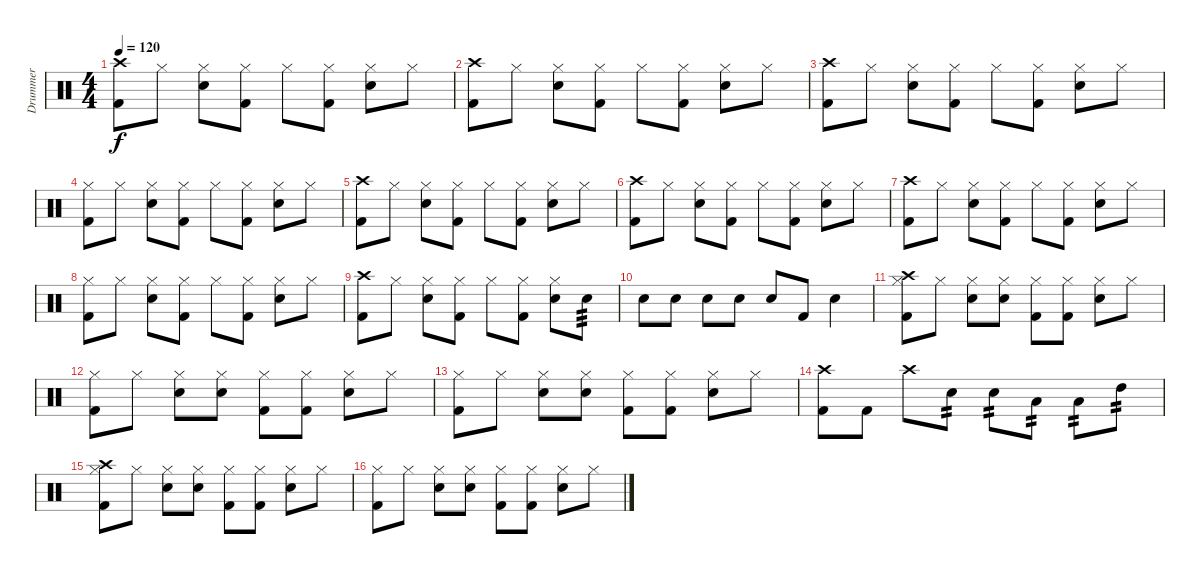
\track ("Drummer" "Drummer") {instrument percussion}
\staff {score}
\articulation defaults
\ts (4 4)
\tempo 120
\clef neutral
\ks c
("Kick (hit) 2" "Crash high (hit)").8{dy f} "Hi-Hat (closed)".8 ("Electric Snare (hit)" "Hi-Hat (closed)").8 ("Kick (hit) 2" "Hi-Hat (closed)").8 "Hi-Hat (closed)".8 ("Kick (hit) 2" "Hi-Hat (closed)").8 ("Electric Snare (hit)" "Hi-Hat (closed)").8 "Hi-Hat (closed)".8 |
("Kick (hit) 2" "Crash high (hit)").8 "Hi-Hat (closed)".8 ("Electric Snare (hit)" "Hi-Hat (closed)").8 ("Kick (hit) 2" "Hi-Hat (closed)").8 "Hi-Hat (closed)".8 ("Kick (hit) 2" "Hi-Hat (closed)").8 ("Electric Snare (hit)" "Hi-Hat (closed)").8 "Hi-Hat (closed)".8 |
("Kick (hit) 2" "Crash high (hit)").8 "Hi-Hat (closed)".8 ("Electric Snare (hit)" "Hi-Hat (closed)").8 ("Kick (hit) 2" "Hi-Hat (closed)").8 "Hi-Hat (closed)".8 ("Kick (hit) 2" "Hi-Hat (closed)").8 ("Electric Snare (hit)" "Hi-Hat (closed)").8 "Hi-Hat (closed)".8 |
("Kick (hit) 2" "Hi-Hat (closed)").8 "Hi-Hat (closed)".8 ("Electric Snare (hit)" "Hi-Hat (closed)").8 ("Kick (hit) 2" "Hi-Hat (closed)").8 "Hi-Hat (closed)".8 ("Kick (hit) 2" "Hi-Hat (closed)").8 ("Electric Snare (hit)" "Hi-Hat (closed)").8 "Hi-Hat (closed)".8 |
("Kick (hit) 2" "Crash high (hit)").8 "Hi-Hat (closed)".8 ("Electric Snare (hit)" "Hi-Hat (closed)").8 ("Kick (hit) 2" "Hi-Hat (closed)").8 "Hi-Hat (closed)".8 ("Kick (hit) 2" "Hi-Hat (closed)").8 ("Electric Snare (hit)" "Hi-Hat (closed)").8 "Hi-Hat (closed)".8 |
("Kick (hit) 2" "Crash high (hit)").8 "Hi-Hat (closed)".8 ("Electric Snare (hit)" "Hi-Hat (closed)").8 ("Kick (hit) 2" "Hi-Hat (closed)").8 "Hi-Hat (closed)".8 ("Kick (hit) 2" "Hi-Hat (closed)").8 ("Electric Snare (hit)" "Hi-Hat (closed)").8 "Hi-Hat (closed)".8 |
("Kick (hit) 2" "Crash high (hit)").8 "Hi-Hat (closed)".8 ("Electric Snare (hit)" "Hi-Hat (closed)").8 ("Kick (hit) 2" "Hi-Hat (closed)").8 "Hi-Hat (closed)".8 ("Kick (hit) 2" "Hi-Hat (closed)").8 ("Electric Snare (hit)" "Hi-Hat (closed)").8 "Hi-Hat (closed)".8 |
("Kick (hit) 2" "Hi-Hat (closed)").8 "Hi-Hat (closed)".8 ("Electric Snare (hit)" "Hi-Hat (closed)").8 ("Kick (hit) 2" "Hi-Hat (closed)").8 "Hi-Hat (closed)".8 ("Kick (hit) 2" "Hi-Hat (closed)").8 ("Electric Snare (hit)" "Hi-Hat (closed)").8 "Hi-Hat (closed)".8 |
("Kick (hit) 2" "Crash high (hit)").8 "Hi-Hat (closed)".8 ("Electric Snare (hit)" "Hi-Hat (closed)").8 ("Kick (hit) 2" "Hi-Hat (closed)").8 "Hi-Hat (closed)".8 ("Kick (hit) 2" "Hi-Hat (closed)").8 ("Electric Snare (hit)" "Hi-Hat (closed)").8 "Electric Snare (hit)".8{tp 3} |
"Electric Snare (hit)".8 "Electric Snare (hit)".8 "Electric Snare (hit)".8 "Electric Snare (hit)".8 "Electric Snare (hit)".8 "Kick (hit) 2".8 "Electric Snare (hit)".4 |
("Kick (hit) 2" "Crash high (hit)" "Hi-Hat (closed)").8 "Hi-Hat (closed)".8 ("Electric Snare (hit)" "Hi-Hat (closed)").8 ("Electric Snare (hit)" "Hi-Hat (closed)").8 ("Kick (hit) 2" "Hi-Hat (closed)").8 ("Kick (hit) 2" "Hi-Hat (closed)").8 ("Electric Snare (hit)" "Hi-Hat (closed)").8 "Hi-Hat (closed)".8 |
("Kick (hit) 2" "Hi-Hat (closed)").8 "Hi-Hat (closed)".8 ("Electric Snare (hit)" "Hi-Hat (closed)").8 ("Electric Snare (hit)" "Hi-Hat (closed)").8 ("Kick (hit) 2" "Hi-Hat (closed)").8 ("Kick (hit) 2" "Hi-Hat (closed)").8 ("Electric Snare (hit)" "Hi-Hat (closed)").8 "Hi-Hat (closed)".8 |
("Kick (hit) 2" "Hi-Hat (closed)").8 "Hi-Hat (closed)".8 ("Electric Snare (hit)" "Hi-Hat (closed)").8 ("Electric Snare (hit)" "Hi-Hat (closed)").8 ("Kick (hit) 2" "Hi-Hat (closed)").8 ("Kick (hit) 2" "Hi-Hat (closed)").8 ("Electric Snare (hit)" "Hi-Hat (closed)").8 "Hi-Hat (closed)".8 |
("Kick (hit) 2" "Crash high (hit)").8 "Kick (hit) 2".8 "Crash high (hit)".8 "Electric Snare (hit)".8{tp 2} "Electric Snare (hit)".8{tp 2} "Low Tom (hit)".8{tp 2} "Low Tom (hit)".8{tp 2} "High Tom (hit)".8{tp 2} |
("Kick (hit) 2" "Crash high (hit)" "Hi-Hat (closed)").8 "Hi-Hat (closed)".8 ("Electric Snare (hit)" "Hi-Hat (closed)").8 ("Electric Snare (hit)" "Hi-Hat (closed)").8 ("Kick (hit) 2" "Hi-Hat (closed)").8 ("Kick (hit) 2" "Hi-Hat (closed)").8 ("Electric Snare (hit)" "Hi-Hat (closed)").8 "Hi-Hat (closed)".8 |
("Kick (hit) 2" "Hi-Hat (closed)").8 "Hi-Hat (closed)".8 ("Electric Snare (hit)" "Hi-Hat (closed)").8 ("Electric Snare (hit)" "Hi-Hat (closed)").8 ("Kick (hit) 2" "Hi-Hat (closed)").8 ("Kick (hit) 2" "Hi-Hat (closed)").8 ("Electric Snare (hit)" "Hi-Hat (closed)").8 "Hi-Hat (closed)".8
